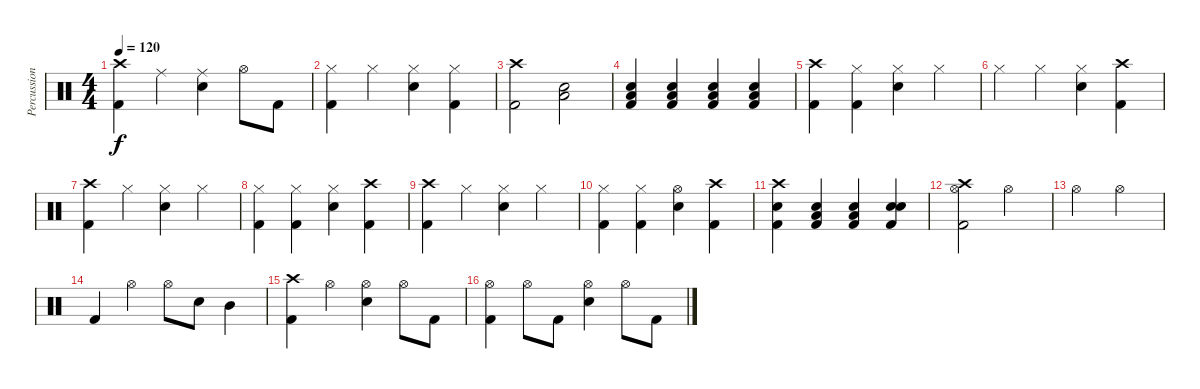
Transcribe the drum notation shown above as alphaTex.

\track ("Percussion" "Percussion") {instrument percussion}
\staff {score}
\articulation defaults
\ts (4 4)
\tempo 120
\clef neutral
\ks c
("Crash high (hit)" "Kick (hit) 2").4{dy f} "Ride (middle)".4 ("Ride (middle)" "Snare (hit) 2").4 "Hi-Hat (open)".8 "Kick (hit) 2".8 |
("Hi-Hat (closed)" "Kick (hit) 2").4 "Hi-Hat (closed)".4 ("Hi-Hat (closed)" "Snare (hit) 2").4 ("Hi-Hat (closed)" "Kick (hit) 2").4 |
("Crash high (hit)" "Kick (hit) 2").2 ("Low Tom (hit)" "Snare (hit) 2").2 |
("Low Floor Tom (hit)" "Snare (hit) 2" "Kick (hit) 2").4 ("Low Floor Tom (hit)" "Snare (hit) 2" "Kick (hit) 2").4 ("Low Floor Tom (hit)" "Snare (hit) 2" "Kick (hit) 2").4 ("Low Floor Tom (hit)" "Snare (hit) 2" "Kick (hit) 2").4 |
("Crash high (hit)" "Kick (hit) 2").4 ("Hi-Hat (closed)" "Kick (hit) 2").4 ("Hi-Hat (closed)" "Snare (hit) 2").4 "Hi-Hat (closed)".4 |
"Hi-Hat (closed)".4 "Hi-Hat (closed)".4 ("Hi-Hat (closed)" "Snare (hit) 2").4 ("Crash high (hit)" "Kick (hit) 2").4 |
("Crash high (hit)" "Kick (hit) 2").4 "Hi-Hat (closed)".4 ("Hi-Hat (closed)" "Snare (hit) 2").4 "Hi-Hat (closed)".4 |
("Hi-Hat (closed)" "Kick (hit) 2").4 ("Hi-Hat (closed)" "Kick (hit) 2").4 ("Hi-Hat (closed)" "Snare (hit) 2").4 ("Crash high (hit)" "Kick (hit) 2").4 |
("Crash high (hit)" "Kick (hit) 2").4 "Hi-Hat (closed)".4 ("Hi-Hat (closed)" "Snare (hit) 2").4 "Hi-Hat (closed)".4 |
("Hi-Hat (closed)" "Kick (hit) 2").4 ("Hi-Hat (closed)" "Kick (hit) 2").4 ("Hi-Hat (open)" "Snare (hit) 2").4 ("Crash high (hit)" "Kick (hit) 2").4 |
("Crash high (hit)" "Snare (hit) 2" "Kick (hit) 2").4 ("Low Floor Tom (hit)" "Snare (hit) 2" "Kick (hit) 2").4 ("Low Floor Tom (hit)" "Snare (hit) 2" "Kick (hit) 2").4 ("Snare (hit)" "Snare (hit) 2" "Kick (hit) 2").4 |
("Crash high (hit)" "Hi-Hat (open)" "Kick (hit) 2").2 "Hi-Hat (open)".2 |
"Hi-Hat (open)".2 "Hi-Hat (open)".2 |
"Kick (hit) 2".4 "Hi-Hat (open)".4 "Hi-Hat (open)".8 "Snare (hit) 2".8 "Mid Tom (hit)".4 |
("Crash high (hit)" "Kick (hit) 2").4 "Hi-Hat (open)".4 ("Hi-Hat (open)" "Snare (hit) 2").4 "Hi-Hat (open)".8 "Kick (hit) 2".8 |
("Hi-Hat (open)" "Kick (hit) 2").4 "Hi-Hat (open)".8 "Kick (hit) 2".8 ("Hi-Hat (open)" "Snare (hit) 2").4 "Hi-Hat (open)".8 "Kick (hit) 2".8
